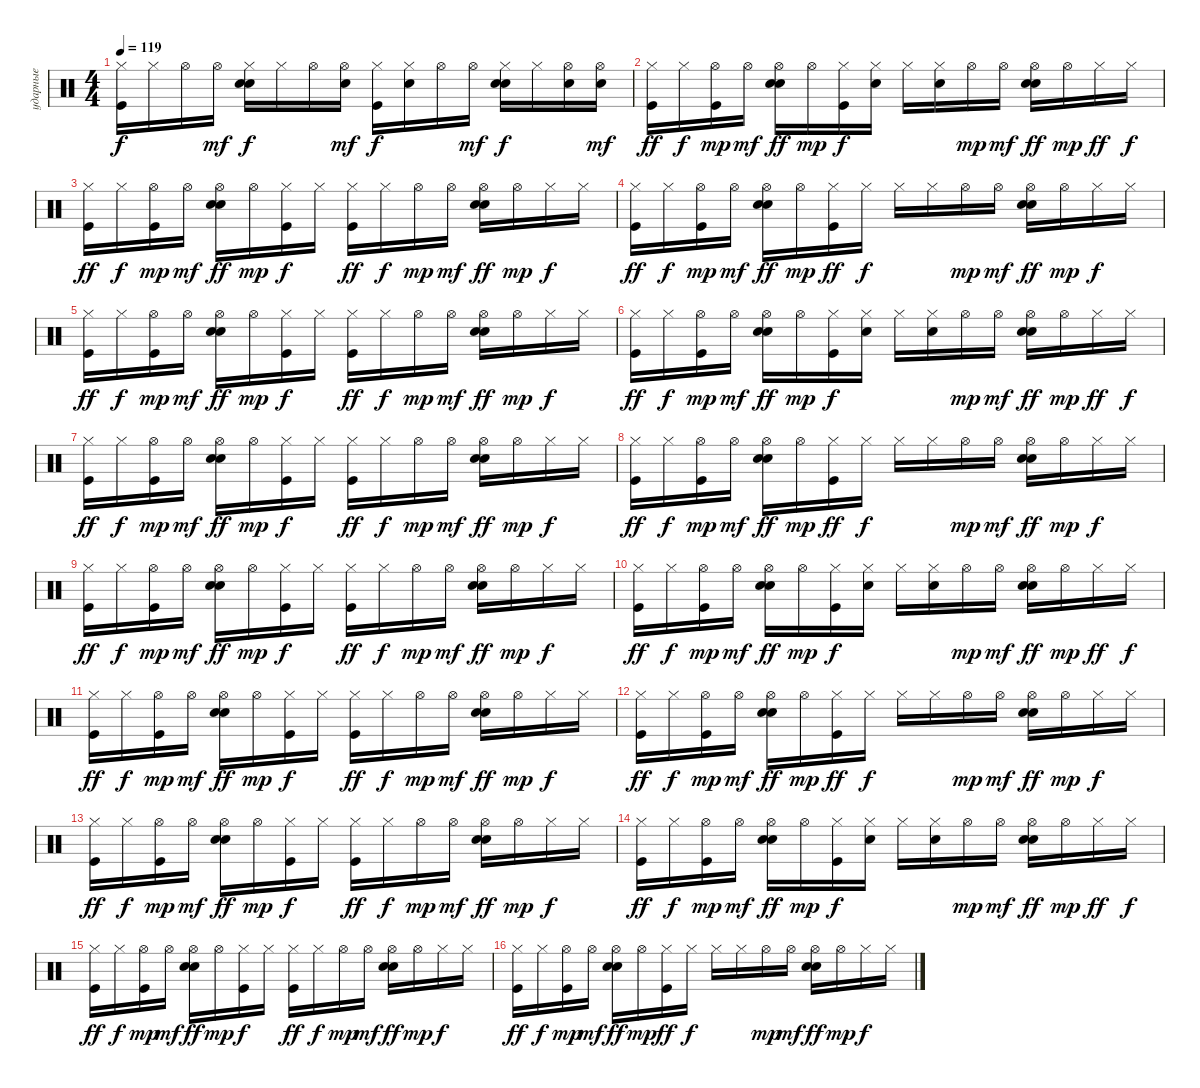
\track ("ударные" "ударные") {instrument percussion}
\staff {score}
\articulation defaults
\ts (4 4)
\tempo 119
\clef neutral
\ks c
("Kick (hit)" "Hi-Hat (closed)").16{dy f} "Hi-Hat (closed)".16 "Hi-Hat (open)".16 "Hi-Hat (open)".16{dy mf} ("Electric Snare (hit)" "Hi-Hat (closed)" "Hand Clap (hit)").16{dy f} "Hi-Hat (closed)".16 "Hi-Hat (open)".16 ("Hi-Hat (open)" "Electric Snare (hit)").16{dy mf} ("Hi-Hat (closed)" "Kick (hit)").16{dy f} ("Electric Snare (hit)" "Hi-Hat (closed)").16 "Hi-Hat (open)".16 "Hi-Hat (open)".16{dy mf} ("Electric Snare (hit)" "Hi-Hat (closed)" "Hand Clap (hit)").16{dy f} "Hi-Hat (closed)".16 ("Electric Snare (hit)" "Hi-Hat (open)").16 ("Electric Snare (hit)" "Hi-Hat (open)").16{dy mf} |
("Kick (hit)" "Hi-Hat (closed)").16{dy ff} "Hi-Hat (closed)".16{dy f} ("Kick (hit)" "Hi-Hat (open)").16{dy mp} "Hi-Hat (open)".16{dy mf} ("Electric Snare (hit)" "Hi-Hat (open)" "Hand Clap (hit)").16{dy ff} "Hi-Hat (open)".16{dy mp} ("Kick (hit)" "Hi-Hat (closed)").16{dy f} ("Electric Snare (hit)" "Hi-Hat (closed)").16 "Hi-Hat (closed)".16 ("Electric Snare (hit)" "Hi-Hat (closed)").16 "Hi-Hat (open)".16{dy mp} "Hi-Hat (open)".16{dy mf} ("Hi-Hat (open)" "Electric Snare (hit)" "Hand Clap (hit)").16{dy ff} "Hi-Hat (open)".16{dy mp} "Hi-Hat (closed)".16{dy ff} "Hi-Hat (closed)".16{dy f} |
("Kick (hit)" "Hi-Hat (closed)").16{dy ff} "Hi-Hat (closed)".16{dy f} ("Kick (hit)" "Hi-Hat (open)").16{dy mp} "Hi-Hat (open)".16{dy mf} ("Electric Snare (hit)" "Hi-Hat (open)" "Hand Clap (hit)").16{dy ff} "Hi-Hat (open)".16{dy mp} ("Kick (hit)" "Hi-Hat (closed)").16{dy f} "Hi-Hat (closed)".16 ("Kick (hit)" "Hi-Hat (closed)").16{dy ff} "Hi-Hat (closed)".16{dy f} "Hi-Hat (open)".16{dy mp} "Hi-Hat (open)".16{dy mf} ("Electric Snare (hit)" "Hi-Hat (open)" "Hand Clap (hit)").16{dy ff} "Hi-Hat (open)".16{dy mp} "Hi-Hat (closed)".16{dy f} "Hi-Hat (closed)".16 |
("Kick (hit)" "Hi-Hat (closed)").16{dy ff} "Hi-Hat (closed)".16{dy f} ("Kick (hit)" "Hi-Hat (open)").16{dy mp} "Hi-Hat (open)".16{dy mf} ("Electric Snare (hit)" "Hi-Hat (open)" "Hand Clap (hit)").16{dy ff} "Hi-Hat (open)".16{dy mp} ("Kick (hit)" "Hi-Hat (closed)").16{dy ff} "Hi-Hat (closed)".16{dy f} "Hi-Hat (closed)".16 "Hi-Hat (closed)".16 "Hi-Hat (open)".16{dy mp} "Hi-Hat (open)".16{dy mf} ("Electric Snare (hit)" "Hi-Hat (open)" "Hand Clap (hit)").16{dy ff} "Hi-Hat (open)".16{dy mp} "Hi-Hat (closed)".16{dy f} "Hi-Hat (closed)".16 |
("Kick (hit)" "Hi-Hat (closed)").16{dy ff} "Hi-Hat (closed)".16{dy f} ("Kick (hit)" "Hi-Hat (open)").16{dy mp} "Hi-Hat (open)".16{dy mf} ("Electric Snare (hit)" "Hi-Hat (open)" "Hand Clap (hit)").16{dy ff} "Hi-Hat (open)".16{dy mp} ("Kick (hit)" "Hi-Hat (closed)").16{dy f} "Hi-Hat (closed)".16 ("Kick (hit)" "Hi-Hat (closed)").16{dy ff} "Hi-Hat (closed)".16{dy f} "Hi-Hat (open)".16{dy mp} "Hi-Hat (open)".16{dy mf} ("Electric Snare (hit)" "Hi-Hat (open)" "Hand Clap (hit)").16{dy ff} "Hi-Hat (open)".16{dy mp} "Hi-Hat (closed)".16{dy f} "Hi-Hat (closed)".16 |
("Kick (hit)" "Hi-Hat (closed)").16{dy ff} "Hi-Hat (closed)".16{dy f} ("Kick (hit)" "Hi-Hat (open)").16{dy mp} "Hi-Hat (open)".16{dy mf} ("Electric Snare (hit)" "Hi-Hat (open)" "Hand Clap (hit)").16{dy ff} "Hi-Hat (open)".16{dy mp} ("Kick (hit)" "Hi-Hat (closed)").16{dy f} ("Electric Snare (hit)" "Hi-Hat (closed)").16 "Hi-Hat (closed)".16 ("Electric Snare (hit)" "Hi-Hat (closed)").16 "Hi-Hat (open)".16{dy mp} "Hi-Hat (open)".16{dy mf} ("Hi-Hat (open)" "Electric Snare (hit)" "Hand Clap (hit)").16{dy ff} "Hi-Hat (open)".16{dy mp} "Hi-Hat (closed)".16{dy ff} "Hi-Hat (closed)".16{dy f} |
("Kick (hit)" "Hi-Hat (closed)").16{dy ff} "Hi-Hat (closed)".16{dy f} ("Kick (hit)" "Hi-Hat (open)").16{dy mp} "Hi-Hat (open)".16{dy mf} ("Electric Snare (hit)" "Hi-Hat (open)" "Hand Clap (hit)").16{dy ff} "Hi-Hat (open)".16{dy mp} ("Kick (hit)" "Hi-Hat (closed)").16{dy f} "Hi-Hat (closed)".16 ("Kick (hit)" "Hi-Hat (closed)").16{dy ff} "Hi-Hat (closed)".16{dy f} "Hi-Hat (open)".16{dy mp} "Hi-Hat (open)".16{dy mf} ("Electric Snare (hit)" "Hi-Hat (open)" "Hand Clap (hit)").16{dy ff} "Hi-Hat (open)".16{dy mp} "Hi-Hat (closed)".16{dy f} "Hi-Hat (closed)".16 |
("Kick (hit)" "Hi-Hat (closed)").16{dy ff} "Hi-Hat (closed)".16{dy f} ("Kick (hit)" "Hi-Hat (open)").16{dy mp} "Hi-Hat (open)".16{dy mf} ("Electric Snare (hit)" "Hi-Hat (open)" "Hand Clap (hit)").16{dy ff} "Hi-Hat (open)".16{dy mp} ("Kick (hit)" "Hi-Hat (closed)").16{dy ff} "Hi-Hat (closed)".16{dy f} "Hi-Hat (closed)".16 "Hi-Hat (closed)".16 "Hi-Hat (open)".16{dy mp} "Hi-Hat (open)".16{dy mf} ("Electric Snare (hit)" "Hi-Hat (open)" "Hand Clap (hit)").16{dy ff} "Hi-Hat (open)".16{dy mp} "Hi-Hat (closed)".16{dy f} "Hi-Hat (closed)".16 |
("Kick (hit)" "Hi-Hat (closed)").16{dy ff} "Hi-Hat (closed)".16{dy f} ("Kick (hit)" "Hi-Hat (open)").16{dy mp} "Hi-Hat (open)".16{dy mf} ("Electric Snare (hit)" "Hi-Hat (open)" "Hand Clap (hit)").16{dy ff} "Hi-Hat (open)".16{dy mp} ("Kick (hit)" "Hi-Hat (closed)").16{dy f} "Hi-Hat (closed)".16 ("Kick (hit)" "Hi-Hat (closed)").16{dy ff} "Hi-Hat (closed)".16{dy f} "Hi-Hat (open)".16{dy mp} "Hi-Hat (open)".16{dy mf} ("Electric Snare (hit)" "Hi-Hat (open)" "Hand Clap (hit)").16{dy ff} "Hi-Hat (open)".16{dy mp} "Hi-Hat (closed)".16{dy f} "Hi-Hat (closed)".16 |
("Kick (hit)" "Hi-Hat (closed)").16{dy ff} "Hi-Hat (closed)".16{dy f} ("Kick (hit)" "Hi-Hat (open)").16{dy mp} "Hi-Hat (open)".16{dy mf} ("Electric Snare (hit)" "Hi-Hat (open)" "Hand Clap (hit)").16{dy ff} "Hi-Hat (open)".16{dy mp} ("Kick (hit)" "Hi-Hat (closed)").16{dy f} ("Electric Snare (hit)" "Hi-Hat (closed)").16 "Hi-Hat (closed)".16 ("Electric Snare (hit)" "Hi-Hat (closed)").16 "Hi-Hat (open)".16{dy mp} "Hi-Hat (open)".16{dy mf} ("Hi-Hat (open)" "Electric Snare (hit)" "Hand Clap (hit)").16{dy ff} "Hi-Hat (open)".16{dy mp} "Hi-Hat (closed)".16{dy ff} "Hi-Hat (closed)".16{dy f} |
("Kick (hit)" "Hi-Hat (closed)").16{dy ff} "Hi-Hat (closed)".16{dy f} ("Kick (hit)" "Hi-Hat (open)").16{dy mp} "Hi-Hat (open)".16{dy mf} ("Electric Snare (hit)" "Hi-Hat (open)" "Hand Clap (hit)").16{dy ff} "Hi-Hat (open)".16{dy mp} ("Kick (hit)" "Hi-Hat (closed)").16{dy f} "Hi-Hat (closed)".16 ("Kick (hit)" "Hi-Hat (closed)").16{dy ff} "Hi-Hat (closed)".16{dy f} "Hi-Hat (open)".16{dy mp} "Hi-Hat (open)".16{dy mf} ("Electric Snare (hit)" "Hi-Hat (open)" "Hand Clap (hit)").16{dy ff} "Hi-Hat (open)".16{dy mp} "Hi-Hat (closed)".16{dy f} "Hi-Hat (closed)".16 |
("Kick (hit)" "Hi-Hat (closed)").16{dy ff} "Hi-Hat (closed)".16{dy f} ("Kick (hit)" "Hi-Hat (open)").16{dy mp} "Hi-Hat (open)".16{dy mf} ("Electric Snare (hit)" "Hi-Hat (open)" "Hand Clap (hit)").16{dy ff} "Hi-Hat (open)".16{dy mp} ("Kick (hit)" "Hi-Hat (closed)").16{dy ff} "Hi-Hat (closed)".16{dy f} "Hi-Hat (closed)".16 "Hi-Hat (closed)".16 "Hi-Hat (open)".16{dy mp} "Hi-Hat (open)".16{dy mf} ("Electric Snare (hit)" "Hi-Hat (open)" "Hand Clap (hit)").16{dy ff} "Hi-Hat (open)".16{dy mp} "Hi-Hat (closed)".16{dy f} "Hi-Hat (closed)".16 |
("Kick (hit)" "Hi-Hat (closed)").16{dy ff} "Hi-Hat (closed)".16{dy f} ("Kick (hit)" "Hi-Hat (open)").16{dy mp} "Hi-Hat (open)".16{dy mf} ("Electric Snare (hit)" "Hi-Hat (open)" "Hand Clap (hit)").16{dy ff} "Hi-Hat (open)".16{dy mp} ("Kick (hit)" "Hi-Hat (closed)").16{dy f} "Hi-Hat (closed)".16 ("Kick (hit)" "Hi-Hat (closed)").16{dy ff} "Hi-Hat (closed)".16{dy f} "Hi-Hat (open)".16{dy mp} "Hi-Hat (open)".16{dy mf} ("Electric Snare (hit)" "Hi-Hat (open)" "Hand Clap (hit)").16{dy ff} "Hi-Hat (open)".16{dy mp} "Hi-Hat (closed)".16{dy f} "Hi-Hat (closed)".16 |
("Kick (hit)" "Hi-Hat (closed)").16{dy ff} "Hi-Hat (closed)".16{dy f} ("Kick (hit)" "Hi-Hat (open)").16{dy mp} "Hi-Hat (open)".16{dy mf} ("Electric Snare (hit)" "Hi-Hat (open)" "Hand Clap (hit)").16{dy ff} "Hi-Hat (open)".16{dy mp} ("Kick (hit)" "Hi-Hat (closed)").16{dy f} ("Electric Snare (hit)" "Hi-Hat (closed)").16 "Hi-Hat (closed)".16 ("Electric Snare (hit)" "Hi-Hat (closed)").16 "Hi-Hat (open)".16{dy mp} "Hi-Hat (open)".16{dy mf} ("Hi-Hat (open)" "Electric Snare (hit)" "Hand Clap (hit)").16{dy ff} "Hi-Hat (open)".16{dy mp} "Hi-Hat (closed)".16{dy ff} "Hi-Hat (closed)".16{dy f} |
("Kick (hit)" "Hi-Hat (closed)").16{dy ff} "Hi-Hat (closed)".16{dy f} ("Kick (hit)" "Hi-Hat (open)").16{dy mp} "Hi-Hat (open)".16{dy mf} ("Electric Snare (hit)" "Hi-Hat (open)" "Hand Clap (hit)").16{dy ff} "Hi-Hat (open)".16{dy mp} ("Kick (hit)" "Hi-Hat (closed)").16{dy f} "Hi-Hat (closed)".16 ("Kick (hit)" "Hi-Hat (closed)").16{dy ff} "Hi-Hat (closed)".16{dy f} "Hi-Hat (open)".16{dy mp} "Hi-Hat (open)".16{dy mf} ("Electric Snare (hit)" "Hi-Hat (open)" "Hand Clap (hit)").16{dy ff} "Hi-Hat (open)".16{dy mp} "Hi-Hat (closed)".16{dy f} "Hi-Hat (closed)".16 |
("Kick (hit)" "Hi-Hat (closed)").16{dy ff} "Hi-Hat (closed)".16{dy f} ("Kick (hit)" "Hi-Hat (open)").16{dy mp} "Hi-Hat (open)".16{dy mf} ("Electric Snare (hit)" "Hi-Hat (open)" "Hand Clap (hit)").16{dy ff} "Hi-Hat (open)".16{dy mp} ("Kick (hit)" "Hi-Hat (closed)").16{dy ff} "Hi-Hat (closed)".16{dy f} "Hi-Hat (closed)".16 "Hi-Hat (closed)".16 "Hi-Hat (open)".16{dy mp} "Hi-Hat (open)".16{dy mf} ("Electric Snare (hit)" "Hi-Hat (open)" "Hand Clap (hit)").16{dy ff} "Hi-Hat (open)".16{dy mp} "Hi-Hat (closed)".16{dy f} "Hi-Hat (closed)".16
